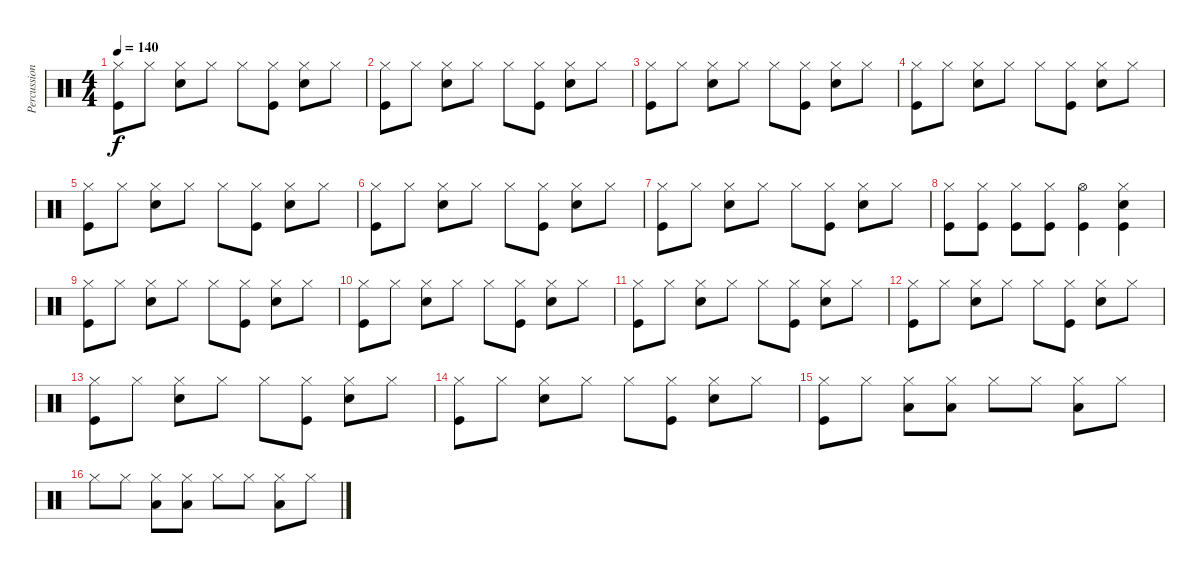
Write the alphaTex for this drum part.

\track ("Percussion" "Percussion") {instrument percussion}
\staff {score}
\articulation defaults
\ts (4 4)
\tempo 140
\clef neutral
\ks c
("Hi-Hat (closed)" "Kick (hit)").8{dy f} "Hi-Hat (closed)".8 ("Hi-Hat (closed)" "Snare (hit) 2").8 "Hi-Hat (closed)".8 "Hi-Hat (closed)".8 ("Hi-Hat (closed)" "Kick (hit)").8 ("Hi-Hat (closed)" "Snare (hit) 2").8 "Hi-Hat (closed)".8 |
("Hi-Hat (closed)" "Kick (hit)").8 "Hi-Hat (closed)".8 ("Hi-Hat (closed)" "Snare (hit) 2").8 "Hi-Hat (closed)".8 "Hi-Hat (closed)".8 ("Hi-Hat (closed)" "Kick (hit)").8 ("Hi-Hat (closed)" "Snare (hit) 2").8 "Hi-Hat (closed)".8 |
("Hi-Hat (closed)" "Kick (hit)").8 "Hi-Hat (closed)".8 ("Hi-Hat (closed)" "Snare (hit) 2").8 "Hi-Hat (closed)".8 "Hi-Hat (closed)".8 ("Hi-Hat (closed)" "Kick (hit)").8 ("Hi-Hat (closed)" "Snare (hit) 2").8 "Hi-Hat (closed)".8 |
("Hi-Hat (closed)" "Kick (hit)").8 "Hi-Hat (closed)".8 ("Hi-Hat (closed)" "Snare (hit) 2").8 "Hi-Hat (closed)".8 "Hi-Hat (closed)".8 ("Hi-Hat (closed)" "Kick (hit)").8 ("Hi-Hat (closed)" "Snare (hit) 2").8 "Hi-Hat (closed)".8 |
("Hi-Hat (closed)" "Kick (hit)").8 "Hi-Hat (closed)".8 ("Hi-Hat (closed)" "Snare (hit) 2").8 "Hi-Hat (closed)".8 "Hi-Hat (closed)".8 ("Hi-Hat (closed)" "Kick (hit)").8 ("Hi-Hat (closed)" "Snare (hit) 2").8 "Hi-Hat (closed)".8 |
("Hi-Hat (closed)" "Kick (hit)").8 "Hi-Hat (closed)".8 ("Hi-Hat (closed)" "Snare (hit) 2").8 "Hi-Hat (closed)".8 "Hi-Hat (closed)".8 ("Hi-Hat (closed)" "Kick (hit)").8 ("Hi-Hat (closed)" "Snare (hit) 2").8 "Hi-Hat (closed)".8 |
("Hi-Hat (closed)" "Kick (hit)").8 "Hi-Hat (closed)".8 ("Hi-Hat (closed)" "Snare (hit) 2").8 "Hi-Hat (closed)".8 "Hi-Hat (closed)".8 ("Hi-Hat (closed)" "Kick (hit)").8 ("Hi-Hat (closed)" "Snare (hit) 2").8 "Hi-Hat (closed)".8 |
("Hi-Hat (closed)" "Kick (hit)").8 ("Hi-Hat (closed)" "Kick (hit)").8 ("Hi-Hat (closed)" "Kick (hit)").8 ("Hi-Hat (closed)" "Kick (hit)").8 ("Hi-Hat (open)" "Kick (hit)").4 ("Hi-Hat (closed)" "Snare (hit) 2" "Kick (hit)").4 |
("Hi-Hat (closed)" "Kick (hit)").8 "Hi-Hat (closed)".8 ("Hi-Hat (closed)" "Snare (hit) 2").8 "Hi-Hat (closed)".8 "Hi-Hat (closed)".8 ("Hi-Hat (closed)" "Kick (hit)").8 ("Hi-Hat (closed)" "Snare (hit) 2").8 "Hi-Hat (closed)".8 |
("Hi-Hat (closed)" "Kick (hit)").8 "Hi-Hat (closed)".8 ("Hi-Hat (closed)" "Snare (hit) 2").8 "Hi-Hat (closed)".8 "Hi-Hat (closed)".8 ("Hi-Hat (closed)" "Kick (hit)").8 ("Hi-Hat (closed)" "Snare (hit) 2").8 "Hi-Hat (closed)".8 |
("Hi-Hat (closed)" "Kick (hit)").8 "Hi-Hat (closed)".8 ("Hi-Hat (closed)" "Snare (hit) 2").8 "Hi-Hat (closed)".8 "Hi-Hat (closed)".8 ("Hi-Hat (closed)" "Kick (hit)").8 ("Hi-Hat (closed)" "Snare (hit) 2").8 "Hi-Hat (closed)".8 |
("Hi-Hat (closed)" "Kick (hit)").8 "Hi-Hat (closed)".8 ("Hi-Hat (closed)" "Snare (hit) 2").8 "Hi-Hat (closed)".8 "Hi-Hat (closed)".8 ("Hi-Hat (closed)" "Kick (hit)").8 ("Hi-Hat (closed)" "Snare (hit) 2").8 "Hi-Hat (closed)".8 |
("Hi-Hat (closed)" "Kick (hit)").8 "Hi-Hat (closed)".8 ("Hi-Hat (closed)" "Snare (hit) 2").8 "Hi-Hat (closed)".8 "Hi-Hat (closed)".8 ("Hi-Hat (closed)" "Kick (hit)").8 ("Hi-Hat (closed)" "Snare (hit) 2").8 "Hi-Hat (closed)".8 |
("Hi-Hat (closed)" "Kick (hit)").8 "Hi-Hat (closed)".8 ("Hi-Hat (closed)" "Snare (hit) 2").8 "Hi-Hat (closed)".8 "Hi-Hat (closed)".8 ("Hi-Hat (closed)" "Kick (hit)").8 ("Hi-Hat (closed)" "Snare (hit) 2").8 "Hi-Hat (closed)".8 |
("Hi-Hat (closed)" "Kick (hit)").8 "Hi-Hat (closed)".8 ("Hi-Hat (closed)" "Low Tom (hit)").8 ("Hi-Hat (closed)" "Low Tom (hit)").8 "Hi-Hat (closed)".8 "Hi-Hat (closed)".8 ("Hi-Hat (closed)" "Low Tom (hit)").8 "Hi-Hat (closed)".8 |
"Hi-Hat (closed)".8 "Hi-Hat (closed)".8 ("Hi-Hat (closed)" "Low Tom (hit)").8 ("Hi-Hat (closed)" "Low Tom (hit)").8 "Hi-Hat (closed)".8 "Hi-Hat (closed)".8 ("Hi-Hat (closed)" "Low Tom (hit)").8 "Hi-Hat (closed)".8
